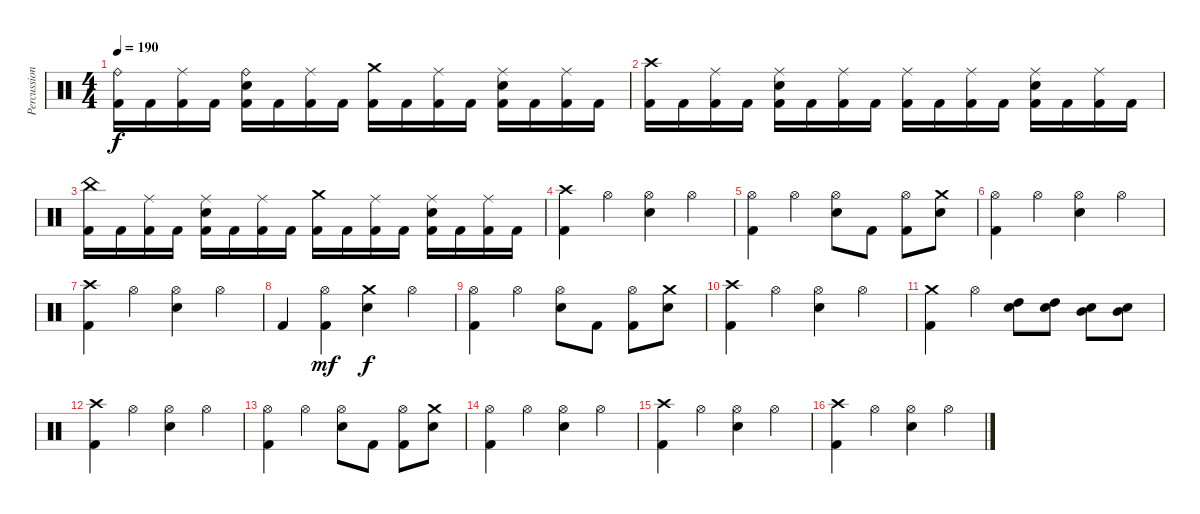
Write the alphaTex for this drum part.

\track ("Percussion" "Percussion") {instrument percussion}
\staff {score}
\articulation defaults
\ts (4 4)
\tempo 190
\clef neutral
\ks c
("Ride (bell)" "Kick (hit) 2").16{dy f} "Kick (hit) 2".16 ("Ride (middle)" "Kick (hit) 2").16 "Kick (hit) 2".16 ("Ride (bell)" "Snare (hit) 2" "Kick (hit) 2").16 "Kick (hit) 2".16 ("Ride (middle)" "Kick (hit) 2").16 "Kick (hit) 2".16 ("Crash medium (hit)" "Kick (hit) 2").16 "Kick (hit) 2".16 ("Ride (middle)" "Kick (hit) 2").16 "Kick (hit) 2".16 ("Ride (middle)" "Snare (hit) 2" "Kick (hit) 2").16 "Kick (hit) 2".16 ("Ride (middle)" "Kick (hit) 2").16 "Kick (hit) 2".16 |
("Crash high (hit)" "Kick (hit) 2").16 "Kick (hit) 2".16 ("Ride (middle)" "Kick (hit) 2").16 "Kick (hit) 2".16 ("Ride (middle)" "Snare (hit) 2" "Kick (hit) 2").16 "Kick (hit) 2".16 ("Ride (middle)" "Kick (hit) 2").16 "Kick (hit) 2".16 ("Ride (middle)" "Kick (hit) 2").16 "Kick (hit) 2".16 ("Ride (middle)" "Kick (hit) 2").16 "Kick (hit) 2".16 ("Ride (middle)" "Snare (hit) 2" "Kick (hit) 2").16 "Kick (hit) 2".16 ("Ride (middle)" "Kick (hit) 2").16 "Kick (hit) 2".16 |
("China (hit)" "Kick (hit) 2").16 "Kick (hit) 2".16 ("Ride (middle)" "Kick (hit) 2").16 "Kick (hit) 2".16 ("Ride (middle)" "Snare (hit) 2" "Kick (hit) 2").16 "Kick (hit) 2".16 ("Ride (middle)" "Kick (hit) 2").16 "Kick (hit) 2".16 ("Crash medium (hit)" "Kick (hit) 2").16 "Kick (hit) 2".16 ("Ride (middle)" "Kick (hit) 2").16 "Kick (hit) 2".16 ("Ride (middle)" "Snare (hit) 2" "Kick (hit) 2").16 "Kick (hit) 2".16 ("Ride (middle)" "Kick (hit) 2").16 "Kick (hit) 2".16 |
("Crash high (hit)" "Kick (hit) 2").4 "Hi-Hat (open)".4 ("Hi-Hat (open)" "Snare (hit) 2").4 "Hi-Hat (open)".4 |
("Hi-Hat (open)" "Kick (hit) 2").4 "Hi-Hat (open)".4 ("Hi-Hat (open)" "Snare (hit) 2").8 "Kick (hit) 2".8 ("Hi-Hat (open)" "Kick (hit) 2").8 ("Crash medium (hit)" "Snare (hit) 2").8 |
("Hi-Hat (open)" "Kick (hit) 2").4 "Hi-Hat (open)".4 ("Hi-Hat (open)" "Snare (hit) 2").4 "Hi-Hat (open)".4 |
("Crash high (hit)" "Kick (hit) 2").4 "Hi-Hat (open)".4 ("Hi-Hat (open)" "Snare (hit) 2").4 "Hi-Hat (open)".4 |
"Kick (hit) 2".4 ("Hi-Hat (open)" "Kick (hit) 2").4{dy mf} ("Crash medium (hit)" "Snare (hit) 2").4{dy f} "Hi-Hat (open)".4 |
("Hi-Hat (open)" "Kick (hit) 2").4 "Hi-Hat (open)".4 ("Hi-Hat (open)" "Snare (hit) 2").8 "Kick (hit) 2".8 ("Hi-Hat (open)" "Kick (hit) 2").8 ("Crash medium (hit)" "Snare (hit) 2").8 |
("Crash high (hit)" "Kick (hit) 2").4 "Hi-Hat (open)".4 ("Hi-Hat (open)" "Snare (hit) 2").4 "Hi-Hat (open)".4 |
("Crash medium (hit)" "Kick (hit) 2").4 "Hi-Hat (open)".4 ("High Tom (hit)" "Snare (hit) 2").8 ("High Tom (hit)" "Snare (hit) 2").8 ("Mid Tom (hit)" "Snare (hit) 2").8 ("Mid Tom (hit)" "Snare (hit) 2").8 |
("Crash high (hit)" "Kick (hit) 2").4 "Hi-Hat (open)".4 ("Hi-Hat (open)" "Snare (hit) 2").4 "Hi-Hat (open)".4 |
("Hi-Hat (open)" "Kick (hit) 2").4 "Hi-Hat (open)".4 ("Hi-Hat (open)" "Snare (hit) 2").8 "Kick (hit) 2".8 ("Hi-Hat (open)" "Kick (hit) 2").8 ("Crash medium (hit)" "Snare (hit) 2").8 |
("Hi-Hat (open)" "Kick (hit) 2").4 "Hi-Hat (open)".4 ("Hi-Hat (open)" "Snare (hit) 2").4 "Hi-Hat (open)".4 |
("Crash high (hit)" "Kick (hit) 2").4 "Hi-Hat (open)".4 ("Hi-Hat (open)" "Snare (hit) 2").4 "Hi-Hat (open)".4 |
("Crash high (hit)" "Kick (hit) 2").4 "Hi-Hat (open)".4 ("Hi-Hat (open)" "Snare (hit) 2").4 "Hi-Hat (open)".4
